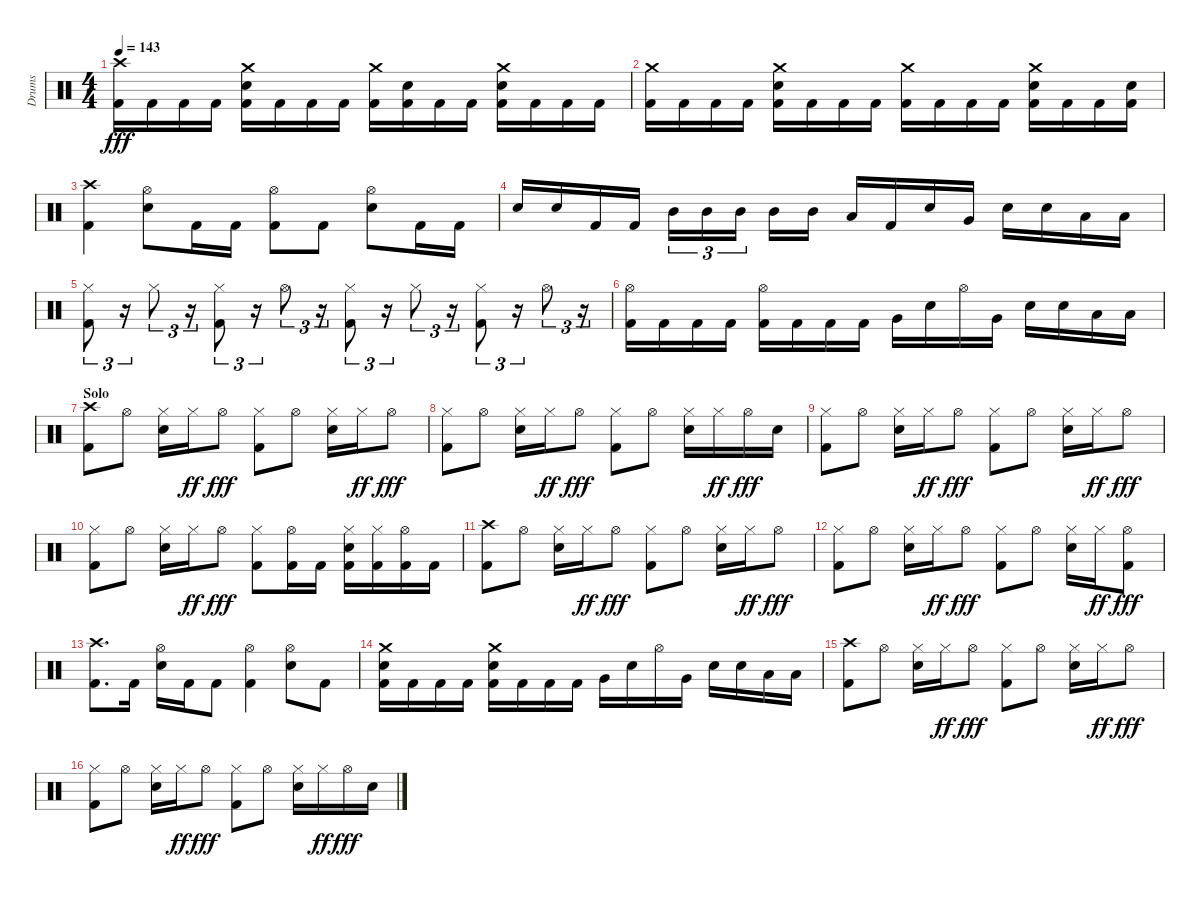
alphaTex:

\track ("Drums" "Drums") {instrument percussion}
\staff {score}
\articulation defaults
\ts (4 4)
\tempo 143
\clef neutral
\ks aminor
("Kick (hit) 2" "Crash high (hit)").16{dy fff} "Kick (hit) 2".16 "Kick (hit) 2".16 "Kick (hit) 2".16 ("Kick (hit) 2" "Snare (hit) 2" "Crash medium (hit)").16 "Kick (hit) 2".16 "Kick (hit) 2".16 "Kick (hit) 2".16 ("Kick (hit) 2" "Crash medium (hit)").16 ("Kick (hit) 2" "Snare (hit) 2").16 "Kick (hit) 2".16 "Kick (hit) 2".16 ("Kick (hit) 2" "Snare (hit) 2" "Crash medium (hit)").16 "Kick (hit) 2".16 "Kick (hit) 2".16 "Kick (hit) 2".16 |
("Kick (hit) 2" "Crash medium (hit)").16 "Kick (hit) 2".16 "Kick (hit) 2".16 "Kick (hit) 2".16 ("Kick (hit) 2" "Snare (hit) 2" "Crash medium (hit)").16 "Kick (hit) 2".16 "Kick (hit) 2".16 "Kick (hit) 2".16 ("Kick (hit) 2" "Crash medium (hit)").16 "Kick (hit) 2".16 "Kick (hit) 2".16 "Kick (hit) 2".16 ("Kick (hit) 2" "Snare (hit) 2" "Crash medium (hit)").16 "Kick (hit) 2".16 "Kick (hit) 2".16 ("Kick (hit) 2" "Snare (hit) 2").16 |
("Kick (hit) 2" "Crash high (hit)").4 ("Snare (hit) 2" "Hi-Hat (open)").8 "Kick (hit) 2".16 "Kick (hit) 2".16 ("Kick (hit) 2" "Hi-Hat (open)").8 "Kick (hit) 2".8 ("Snare (hit) 2" "Hi-Hat (open)").8 "Kick (hit) 2".16 "Kick (hit) 2".16 |
"Snare (hit) 2".16 "Snare (hit) 2".16 "Kick (hit) 2".16 "Kick (hit) 2".16 "Mid Tom (hit)".16{tu (3 2)} "Mid Tom (hit)".16{tu (3 2)} "Mid Tom (hit)".16{tu (3 2)} "Mid Tom (hit)".16 "Mid Tom (hit)".16 "Low Tom (hit)".16 "Kick (hit) 2".16 "Snare (hit) 2".16 "Very Low Tom (hit)".16 "Snare (hit) 2".16 "Snare (hit) 2".16 "Low Floor Tom (hit)".16 "Low Floor Tom (hit)".16 |
("Kick (hit) 2" "Hi-Hat (closed)").8{tu (3 2)} r.16{tu (3 2)} "Hi-Hat (closed)".8{tu (3 2)} r.16{tu (3 2)} ("Kick (hit) 2" "Hi-Hat (closed)").8{tu (3 2)} r.16{tu (3 2)} "Hi-Hat (open)".8{tu (3 2)} r.16{tu (3 2)} ("Kick (hit) 2" "Hi-Hat (closed)").8{tu (3 2)} r.16{tu (3 2)} "Hi-Hat (closed)".8{tu (3 2)} r.16{tu (3 2)} ("Kick (hit) 2" "Hi-Hat (closed)").8{tu (3 2)} r.16{tu (3 2)} "Hi-Hat (open)".8{tu (3 2)} r.16{tu (3 2)} |
("Kick (hit) 2" "Hi-Hat (open)").16 "Kick (hit) 2".16 "Kick (hit) 2".16 "Kick (hit) 2".16 ("Kick (hit) 2" "Hi-Hat (open)").16 "Kick (hit) 2".16 "Kick (hit) 2".16 "Kick (hit) 2".16 "Very Low Tom (hit)".16 "Snare (hit) 2".16 "Hi-Hat (open)".16 "Very Low Tom (hit)".16 "Snare (hit) 2".16 "Snare (hit) 2".16 "Low Floor Tom (hit)".16 "Low Floor Tom (hit)".16 |
\section ("" "Solo")
("Kick (hit) 2" "Crash high (hit)").8 "Hi-Hat (open)".8 ("Snare (hit) 2" "Hi-Hat (closed)").16 "Hi-Hat (closed)".16{dy ff} "Hi-Hat (open)".8{dy fff} ("Kick (hit) 2" "Hi-Hat (closed)").8 "Hi-Hat (open)".8 ("Snare (hit) 2" "Hi-Hat (closed)").16 "Hi-Hat (closed)".16{dy ff} "Hi-Hat (open)".8{dy fff} |
("Kick (hit) 2" "Hi-Hat (closed)").8 "Hi-Hat (open)".8 ("Snare (hit) 2" "Hi-Hat (closed)").16 "Hi-Hat (closed)".16{dy ff} "Hi-Hat (open)".8{dy fff} ("Kick (hit) 2" "Hi-Hat (closed)").8 "Hi-Hat (open)".8 ("Snare (hit) 2" "Hi-Hat (closed)").16 "Hi-Hat (closed)".16{dy ff} "Hi-Hat (open)".16{dy fff} "Snare (hit) 2".16 |
("Kick (hit) 2" "Hi-Hat (closed)").8 "Hi-Hat (open)".8 ("Snare (hit) 2" "Hi-Hat (closed)").16 "Hi-Hat (closed)".16{dy ff} "Hi-Hat (open)".8{dy fff} ("Kick (hit) 2" "Hi-Hat (closed)").8 "Hi-Hat (open)".8 ("Snare (hit) 2" "Hi-Hat (closed)").16 "Hi-Hat (closed)".16{dy ff} "Hi-Hat (open)".8{dy fff} |
("Kick (hit) 2" "Hi-Hat (closed)").8 "Hi-Hat (open)".8 ("Snare (hit) 2" "Hi-Hat (closed)").16 "Hi-Hat (closed)".16{dy ff} "Hi-Hat (open)".8{dy fff} ("Kick (hit) 2" "Hi-Hat (closed)").8 ("Kick (hit) 2" "Hi-Hat (open)").16 "Kick (hit) 2".16 ("Kick (hit) 2" "Snare (hit) 2" "Hi-Hat (closed)").16 ("Kick (hit) 2" "Hi-Hat (closed)").16 ("Kick (hit) 2" "Hi-Hat (open)").16 "Kick (hit) 2".16 |
("Kick (hit) 2" "Crash high (hit)").8 "Hi-Hat (open)".8 ("Snare (hit) 2" "Hi-Hat (closed)").16 "Hi-Hat (closed)".16{dy ff} "Hi-Hat (open)".8{dy fff} ("Kick (hit) 2" "Hi-Hat (closed)").8 "Hi-Hat (open)".8 ("Snare (hit) 2" "Hi-Hat (closed)").16 "Hi-Hat (closed)".16{dy ff} "Hi-Hat (open)".8{dy fff} |
("Kick (hit) 2" "Hi-Hat (closed)").8 "Hi-Hat (open)".8 ("Snare (hit) 2" "Hi-Hat (closed)").16 "Hi-Hat (closed)".16{dy ff} "Hi-Hat (open)".8{dy fff} ("Kick (hit) 2" "Hi-Hat (closed)").8 "Hi-Hat (open)".8 ("Snare (hit) 2" "Hi-Hat (closed)").16 "Hi-Hat (closed)".16{dy ff} ("Kick (hit) 2" "Hi-Hat (open)").8{dy fff} |
("Kick (hit) 2" "Crash high (hit)").8{d} "Kick (hit) 2".16 ("Snare (hit) 2" "Hi-Hat (open)").16 "Kick (hit) 2".16 "Kick (hit) 2".8 ("Kick (hit) 2" "Hi-Hat (open)").4 ("Snare (hit) 2" "Hi-Hat (open)").8 "Kick (hit) 2".8 |
("Kick (hit) 2" "Snare (hit) 2" "Crash medium (hit)").16 "Kick (hit) 2".16 "Kick (hit) 2".16 "Kick (hit) 2".16 ("Kick (hit) 2" "Snare (hit) 2" "Crash medium (hit)").16 "Kick (hit) 2".16 "Kick (hit) 2".16 "Kick (hit) 2".16 "Very Low Tom (hit)".16 "Snare (hit) 2".16 "Hi-Hat (open)".16 "Very Low Tom (hit)".16 "Snare (hit) 2".16 "Snare (hit) 2".16 "Low Floor Tom (hit)".16 "Low Floor Tom (hit)".16 |
("Kick (hit) 2" "Crash high (hit)").8 "Hi-Hat (open)".8 ("Snare (hit) 2" "Hi-Hat (closed)").16 "Hi-Hat (closed)".16{dy ff} "Hi-Hat (open)".8{dy fff} ("Kick (hit) 2" "Hi-Hat (closed)").8 "Hi-Hat (open)".8 ("Snare (hit) 2" "Hi-Hat (closed)").16 "Hi-Hat (closed)".16{dy ff} "Hi-Hat (open)".8{dy fff} |
("Kick (hit) 2" "Hi-Hat (closed)").8 "Hi-Hat (open)".8 ("Snare (hit) 2" "Hi-Hat (closed)").16 "Hi-Hat (closed)".16{dy ff} "Hi-Hat (open)".8{dy fff} ("Kick (hit) 2" "Hi-Hat (closed)").8 "Hi-Hat (open)".8 ("Snare (hit) 2" "Hi-Hat (closed)").16 "Hi-Hat (closed)".16{dy ff} "Hi-Hat (open)".16{dy fff} "Snare (hit) 2".16
